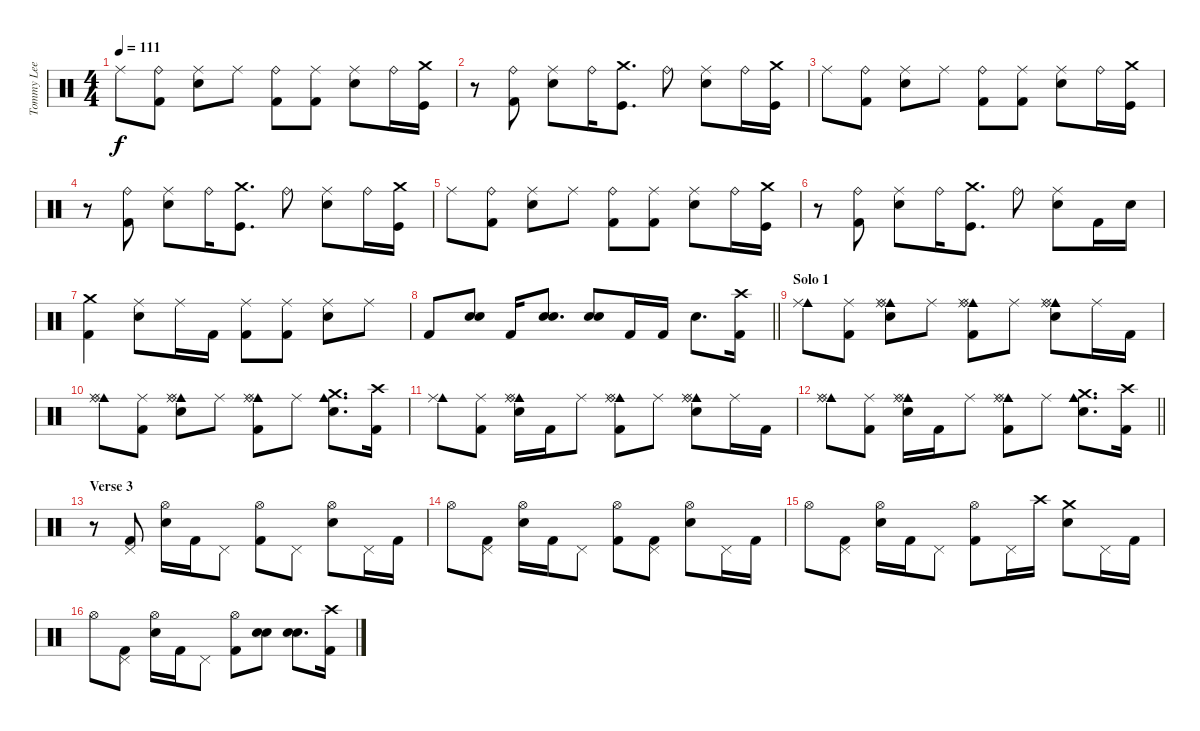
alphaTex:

\track ("Tommy Lee" "Tommy Lee") {instrument percussion}
\staff {score}
\articulation defaults
\ts (4 4)
\tempo 111
\clef neutral
\ks c "Ride (middle)".8{dy f}
("Ride (bell)" "Kick (hit) 2").8 ("Ride (middle)" "Snare (hit) 2").8 "Ride (middle)".8 ("Ride (bell)" "Kick (hit) 2").8 ("Ride (middle)" "Kick (hit) 2").8 ("Ride (middle)" "Snare (hit) 2").8 "Ride (bell)".16 ("Crash medium (hit)" "Kick (hit)").16 |
r.8 ("Ride (bell)" "Kick (hit) 2").8 ("Ride (middle)" "Snare (hit) 2").8 "Ride (bell)".16 ("Crash medium (hit)" "Kick (hit)").8{d} "Ride (bell)".8 ("Ride (middle)" "Snare (hit) 2").8 "Ride (bell)".16 ("Crash medium (hit)" "Kick (hit)").16 |
"Ride (middle)".8 ("Ride (bell)" "Kick (hit) 2").8 ("Ride (middle)" "Snare (hit) 2").8 "Ride (middle)".8 ("Ride (bell)" "Kick (hit) 2").8 ("Ride (middle)" "Kick (hit) 2").8 ("Ride (middle)" "Snare (hit) 2").8 "Ride (bell)".16 ("Crash medium (hit)" "Kick (hit)").16 |
r.8 ("Ride (bell)" "Kick (hit) 2").8 ("Ride (middle)" "Snare (hit) 2").8 "Ride (bell)".16 ("Crash medium (hit)" "Kick (hit)").8{d} "Ride (bell)".8 ("Ride (middle)" "Snare (hit) 2").8 "Ride (bell)".16 ("Crash medium (hit)" "Kick (hit)").16 |
"Ride (middle)".8 ("Ride (bell)" "Kick (hit) 2").8 ("Ride (middle)" "Snare (hit) 2").8 "Ride (middle)".8 ("Ride (bell)" "Kick (hit) 2").8 ("Ride (middle)" "Kick (hit) 2").8 ("Ride (middle)" "Snare (hit) 2").8 "Ride (bell)".16 ("Crash medium (hit)" "Kick (hit)").16 |
r.8 ("Ride (bell)" "Kick (hit) 2").8 ("Ride (middle)" "Snare (hit) 2").8 "Ride (bell)".16 ("Crash medium (hit)" "Kick (hit)").8{d} "Ride (bell)".8 ("Ride (middle)" "Snare (hit) 2").8 "Kick (hit) 2".16 "Snare (hit) 2".16 |
("Crash medium (hit)" "Kick (hit) 2").4 ("Ride (middle)" "Snare (hit) 2").8 "Ride (middle)".16 "Kick (hit) 2".16 ("Ride (middle)" "Kick (hit) 2").8 ("Ride (middle)" "Kick (hit) 2").8 ("Ride (middle)" "Snare (hit) 2").8 "Ride (middle)".8 |
\barLineRight lightlight "Kick (hit) 2".8
("Snare (hit) 2" "Snare (hit) 2").8 "Kick (hit) 2".16 ("Snare (hit) 2" "Snare (hit) 2").8{d} ("Snare (hit) 2" "Snare (hit) 2").8 "Kick (hit) 2".16 "Kick (hit) 2".16 "Snare (hit) 2".8{d} ("Crash high (hit)" "Kick (hit) 2").16 |
\section ("" "Solo 1")
("Cowbell medium (hit)" "Ride (middle)").8 ("Ride (middle)" "Kick (hit) 2").8 ("Cowbell medium (hit)" "Ride (middle)" "Ride (bell)" "Snare (hit) 2").8 "Ride (middle)".8 ("Cowbell medium (hit)" "Ride (middle)" "Ride (bell)" "Kick (hit) 2").8 "Ride (middle)".8 ("Cowbell medium (hit)" "Ride (middle)" "Ride (bell)" "Snare (hit) 2").8 "Ride (middle)".16 "Kick (hit) 2".16 |
("Cowbell medium (hit)" "Ride (middle)" "Ride (bell)").8 ("Ride (middle)" "Kick (hit) 2").8 ("Cowbell medium (hit)" "Ride (middle)" "Ride (bell)" "Snare (hit) 2").8 "Ride (middle)".8 ("Cowbell medium (hit)" "Ride (middle)" "Ride (bell)" "Kick (hit) 2").8 "Ride (middle)".8 ("Cowbell medium (hit)" "Crash medium (hit)" "Snare (hit) 2").8{d} ("Crash high (hit)" "Kick (hit) 2").16 |
("Cowbell medium (hit)" "Ride (middle)").8 ("Ride (middle)" "Kick (hit) 2").8 ("Cowbell medium (hit)" "Ride (middle)" "Ride (bell)" "Snare (hit) 2").16 "Kick (hit) 2".16 "Ride (middle)".8 ("Cowbell medium (hit)" "Ride (middle)" "Ride (bell)" "Kick (hit) 2").8 "Ride (middle)".8 ("Cowbell medium (hit)" "Ride (middle)" "Ride (bell)" "Snare (hit) 2").8 "Ride (middle)".16 "Kick (hit) 2".16 |
\barLineRight lightlight
("Cowbell medium (hit)" "Ride (middle)" "Ride (bell)").8 ("Ride (middle)" "Kick (hit) 2").8 ("Cowbell medium (hit)" "Ride (middle)" "Ride (bell)" "Snare (hit) 2").16 "Kick (hit) 2".16 "Ride (middle)".8 ("Cowbell medium (hit)" "Ride (middle)" "Ride (bell)" "Kick (hit) 2").8 "Ride (middle)".8 ("Cowbell medium (hit)" "Crash medium (hit)" "Snare (hit) 2").8{d} ("Crash high (hit)" "Kick (hit) 2").16 |
\section ("" "Verse 3")
r.8 ("Pedal Hi-Hat (hit)" "Kick (hit) 2").8 ("Hi-Hat (open)" "Snare (hit) 2").16 "Kick (hit) 2".16 "Pedal Hi-Hat (hit)".8 ("Hi-Hat (open)" "Kick (hit) 2").8 "Pedal Hi-Hat (hit)".8 ("Hi-Hat (open)" "Snare (hit) 2").8 "Pedal Hi-Hat (hit)".16 "Kick (hit) 2".16 |
"Hi-Hat (open)".8 ("Pedal Hi-Hat (hit)" "Kick (hit) 2").8 ("Hi-Hat (open)" "Snare (hit) 2").16 "Kick (hit) 2".16 "Pedal Hi-Hat (hit)".8 ("Hi-Hat (open)" "Kick (hit) 2").8 ("Pedal Hi-Hat (hit)" "Kick (hit) 2").8 ("Hi-Hat (open)" "Snare (hit) 2").8 "Pedal Hi-Hat (hit)".16 "Kick (hit) 2".16 |
"Hi-Hat (open)".8 ("Pedal Hi-Hat (hit)" "Kick (hit) 2").8 ("Hi-Hat (open)" "Snare (hit) 2").16 "Kick (hit) 2".16 "Pedal Hi-Hat (hit)".8 ("Hi-Hat (open)" "Kick (hit) 2").8 "Pedal Hi-Hat (hit)".16 "Crash high (hit)".16 ("Crash medium (hit)" "Snare (hit) 2").8 "Pedal Hi-Hat (hit)".16 "Kick (hit) 2".16 |
"Hi-Hat (open)".8 ("Pedal Hi-Hat (hit)" "Kick (hit) 2").8 ("Hi-Hat (open)" "Snare (hit) 2").16 "Kick (hit) 2".16 "Pedal Hi-Hat (hit)".8 ("Hi-Hat (open)" "Kick (hit) 2").8 ("Snare (hit) 2" "Snare (hit) 2").8 ("Snare (hit) 2" "Snare (hit) 2").8{d} ("Crash high (hit)" "Kick (hit) 2").16
